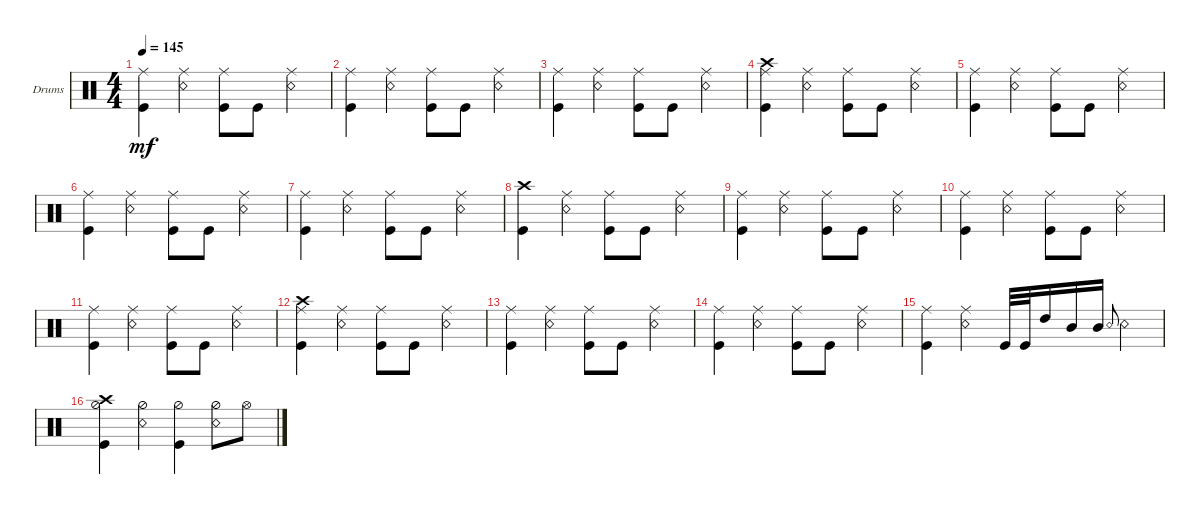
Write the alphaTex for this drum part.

\defaultSystemsLayout 4
\bracketExtendMode groupsimilarinstruments
\firstSystemTrackNameOrientation horizontal
\otherSystemsTrackNameOrientation horizontal
\track ("Drumkit" "Drums") {instrument percussion}
\staff {score}
\articulation defaults
\ts (4 4)
\tempo 145
\clef neutral
\ks c
("Kick (hit)" "Ride (middle)").4{dy mf} ("Ride (middle)" "Snare (rim shot)").4 ("Kick (hit)" "Ride (middle)").8 "Kick (hit)".8 ("Ride (middle)" "Snare (rim shot)").4 |
("Kick (hit)" "Ride (middle)").4 ("Ride (middle)" "Snare (rim shot)").4 ("Kick (hit)" "Ride (middle)").8 "Kick (hit)".8 ("Ride (middle)" "Snare (rim shot)").4 |
("Kick (hit)" "Ride (middle)").4 ("Ride (middle)" "Snare (rim shot)").4 ("Kick (hit)" "Ride (middle)").8 "Kick (hit)".8 ("Ride (middle)" "Snare (rim shot)").4 |
("Kick (hit)" "Ride (middle)" "Crash high (hit)").4 ("Ride (middle)" "Snare (rim shot)").4 ("Kick (hit)" "Ride (middle)").8 "Kick (hit)".8 ("Ride (middle)" "Snare (rim shot)").4 |
("Kick (hit)" "Ride (middle)").4 ("Ride (middle)" "Snare (rim shot)").4 ("Kick (hit)" "Ride (middle)").8 "Kick (hit)".8 ("Ride (middle)" "Snare (rim shot)").4 |
("Kick (hit)" "Ride (middle)").4 ("Ride (middle)" "Snare (rim shot)").4 ("Kick (hit)" "Ride (middle)").8 "Kick (hit)".8 ("Ride (middle)" "Snare (rim shot)").4 |
("Kick (hit)" "Ride (middle)").4 ("Ride (middle)" "Snare (rim shot)").4 ("Kick (hit)" "Ride (middle)").8 "Kick (hit)".8 ("Ride (middle)" "Snare (rim shot)").4 |
("Kick (hit)" "Crash high (hit)").4 ("Ride (middle)" "Snare (rim shot)").4 ("Kick (hit)" "Ride (middle)").8 "Kick (hit)".8 ("Ride (middle)" "Snare (rim shot)").4 |
("Kick (hit)" "Ride (middle)").4 ("Ride (middle)" "Snare (rim shot)").4 ("Kick (hit)" "Ride (middle)").8 "Kick (hit)".8 ("Ride (middle)" "Snare (rim shot)").4 |
("Kick (hit)" "Ride (middle)").4 ("Ride (middle)" "Snare (rim shot)").4 ("Kick (hit)" "Ride (middle)").8 "Kick (hit)".8 ("Ride (middle)" "Snare (rim shot)").4 |
("Kick (hit)" "Ride (middle)").4 ("Ride (middle)" "Snare (rim shot)").4 ("Kick (hit)" "Ride (middle)").8 "Kick (hit)".8 ("Ride (middle)" "Snare (rim shot)").4 |
("Kick (hit)" "Ride (middle)" "Crash high (hit)").4 ("Ride (middle)" "Snare (rim shot)").4 ("Kick (hit)" "Ride (middle)").8 "Kick (hit)".8 ("Ride (middle)" "Snare (rim shot)").4 |
("Kick (hit)" "Ride (middle)").4 ("Ride (middle)" "Snare (rim shot)").4 ("Kick (hit)" "Ride (middle)").8 "Kick (hit)".8 ("Ride (middle)" "Snare (rim shot)").4 |
("Kick (hit)" "Ride (middle)").4 ("Ride (middle)" "Snare (rim shot)").4 ("Kick (hit)" "Ride (middle)").8 "Kick (hit)".8 ("Ride (middle)" "Snare (rim shot)").4 |
("Kick (hit)" "Ride (middle)").4 ("Ride (middle)" "Snare (rim shot)").4 "Kick (hit)".32 "Kick (hit)".32 "High Tom (hit)".16 "Mid Tom (hit)".16 "Mid Tom (hit)".16 "Snare (rim shot)".8{gr onbeat} "Snare (rim shot)".4 |
("Kick (hit)" "Hi-Hat (half)" "Crash high (hit)").4 ("Hi-Hat (half)" "Snare (rim shot)").4 ("Kick (hit)" "Hi-Hat (half)").4 ("Hi-Hat (half)" "Snare (rim shot)").8 "Hi-Hat (open)".8
